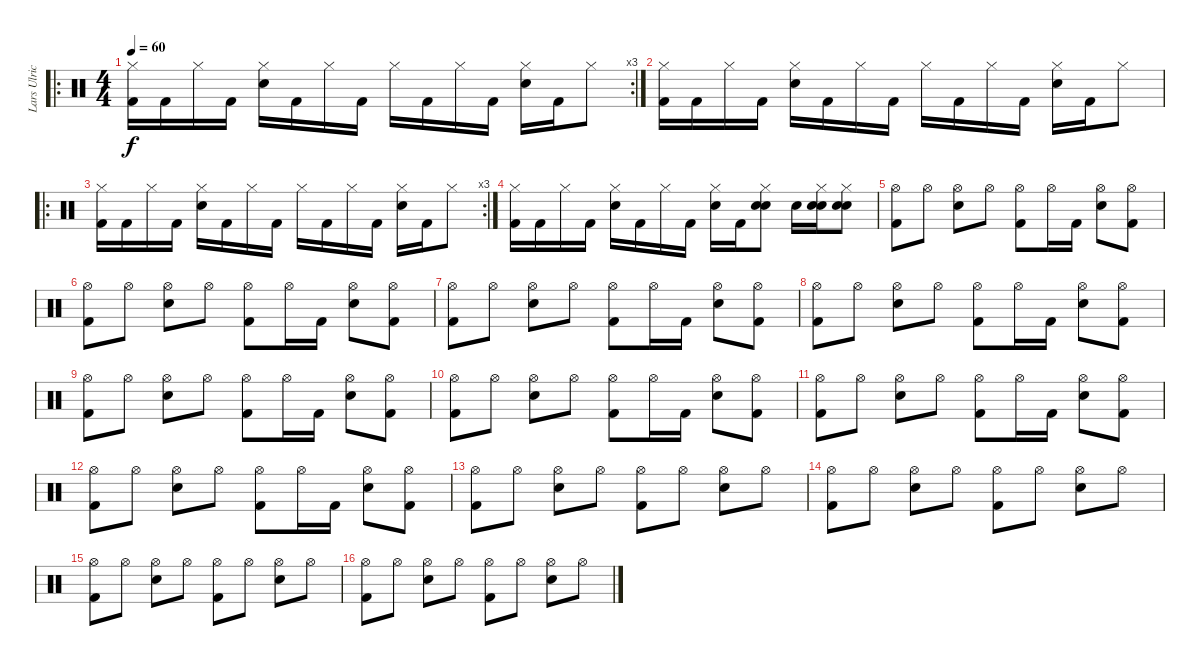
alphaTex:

\track ("Lars Ulrich" "Lars Ulric") {instrument percussion}
\staff {score}
\articulation defaults
\ro
\rc 3
\ts (4 4)
\tempo 60
\clef neutral
\ks c
("Kick (hit) 2" "Hi-Hat (closed)").16{dy f} "Kick (hit) 2".16 "Hi-Hat (closed)".16 "Kick (hit) 2".16 ("Snare (hit) 2" "Hi-Hat (closed)").16 "Kick (hit) 2".16 "Hi-Hat (closed)".16 "Kick (hit) 2".16 "Hi-Hat (closed)".16 "Kick (hit) 2".16 "Hi-Hat (closed)".16 "Kick (hit) 2".16 ("Snare (hit) 2" "Hi-Hat (closed)").16 "Kick (hit) 2".16 "Hi-Hat (closed)".8 |
("Kick (hit) 2" "Hi-Hat (closed)").16 "Kick (hit) 2".16 "Hi-Hat (closed)".16 "Kick (hit) 2".16 ("Snare (hit) 2" "Hi-Hat (closed)").16 "Kick (hit) 2".16 "Hi-Hat (closed)".16 "Kick (hit) 2".16 "Hi-Hat (closed)".16 "Kick (hit) 2".16 "Hi-Hat (closed)".16 "Kick (hit) 2".16 ("Snare (hit) 2" "Hi-Hat (closed)").16 "Kick (hit) 2".16 "Hi-Hat (closed)".8 |
\ro
\rc 3
("Kick (hit) 2" "Hi-Hat (closed)").16 "Kick (hit) 2".16 "Hi-Hat (closed)".16 "Kick (hit) 2".16 ("Snare (hit) 2" "Hi-Hat (closed)").16 "Kick (hit) 2".16 "Hi-Hat (closed)".16 "Kick (hit) 2".16 "Hi-Hat (closed)".16 "Kick (hit) 2".16 "Hi-Hat (closed)".16 "Kick (hit) 2".16 ("Snare (hit) 2" "Hi-Hat (closed)").16 "Kick (hit) 2".16 "Hi-Hat (closed)".8 |
("Kick (hit) 2" "Hi-Hat (closed)").16 "Kick (hit) 2".16 "Hi-Hat (closed)".16 "Kick (hit) 2".16 ("Snare (hit) 2" "Hi-Hat (closed)").16 "Kick (hit) 2".16 "Hi-Hat (closed)".16 "Kick (hit) 2".16 ("Snare (hit) 2" "Hi-Hat (closed)").16 "Kick (hit) 2".16 ("Snare (hit) 2" "Hi-Hat (closed)" "Electric Snare (hit)").8 "Snare (hit) 2".16 ("Snare (hit) 2" "Hi-Hat (closed)" "Electric Snare (hit)").16 ("Snare (hit) 2" "Hi-Hat (closed)" "Electric Snare (hit)").8 |
("Kick (hit) 2" "Hi-Hat (open)").8 "Hi-Hat (open)".8 ("Snare (hit) 2" "Hi-Hat (open)").8 "Hi-Hat (open)".8 ("Kick (hit) 2" "Hi-Hat (open)").8 "Hi-Hat (open)".16 "Kick (hit) 2".16 ("Snare (hit) 2" "Hi-Hat (open)").8 ("Kick (hit) 2" "Hi-Hat (open)").8 |
("Kick (hit) 2" "Hi-Hat (open)").8 "Hi-Hat (open)".8 ("Snare (hit) 2" "Hi-Hat (open)").8 "Hi-Hat (open)".8 ("Kick (hit) 2" "Hi-Hat (open)").8 "Hi-Hat (open)".16 "Kick (hit) 2".16 ("Snare (hit) 2" "Hi-Hat (open)").8 ("Kick (hit) 2" "Hi-Hat (open)").8 |
("Kick (hit) 2" "Hi-Hat (open)").8 "Hi-Hat (open)".8 ("Snare (hit) 2" "Hi-Hat (open)").8 "Hi-Hat (open)".8 ("Kick (hit) 2" "Hi-Hat (open)").8 "Hi-Hat (open)".16 "Kick (hit) 2".16 ("Snare (hit) 2" "Hi-Hat (open)").8 ("Kick (hit) 2" "Hi-Hat (open)").8 |
("Kick (hit) 2" "Hi-Hat (open)").8 "Hi-Hat (open)".8 ("Snare (hit) 2" "Hi-Hat (open)").8 "Hi-Hat (open)".8 ("Kick (hit) 2" "Hi-Hat (open)").8 "Hi-Hat (open)".16 "Kick (hit) 2".16 ("Snare (hit) 2" "Hi-Hat (open)").8 ("Kick (hit) 2" "Hi-Hat (open)").8 |
("Kick (hit) 2" "Hi-Hat (open)").8 "Hi-Hat (open)".8 ("Snare (hit) 2" "Hi-Hat (open)").8 "Hi-Hat (open)".8 ("Kick (hit) 2" "Hi-Hat (open)").8 "Hi-Hat (open)".16 "Kick (hit) 2".16 ("Snare (hit) 2" "Hi-Hat (open)").8 ("Kick (hit) 2" "Hi-Hat (open)").8 |
("Kick (hit) 2" "Hi-Hat (open)").8 "Hi-Hat (open)".8 ("Snare (hit) 2" "Hi-Hat (open)").8 "Hi-Hat (open)".8 ("Kick (hit) 2" "Hi-Hat (open)").8 "Hi-Hat (open)".16 "Kick (hit) 2".16 ("Snare (hit) 2" "Hi-Hat (open)").8 ("Kick (hit) 2" "Hi-Hat (open)").8 |
("Kick (hit) 2" "Hi-Hat (open)").8 "Hi-Hat (open)".8 ("Snare (hit) 2" "Hi-Hat (open)").8 "Hi-Hat (open)".8 ("Kick (hit) 2" "Hi-Hat (open)").8 "Hi-Hat (open)".16 "Kick (hit) 2".16 ("Snare (hit) 2" "Hi-Hat (open)").8 ("Kick (hit) 2" "Hi-Hat (open)").8 |
("Kick (hit) 2" "Hi-Hat (open)").8 "Hi-Hat (open)".8 ("Snare (hit) 2" "Hi-Hat (open)").8 "Hi-Hat (open)".8 ("Kick (hit) 2" "Hi-Hat (open)").8 "Hi-Hat (open)".16 "Kick (hit) 2".16 ("Snare (hit) 2" "Hi-Hat (open)").8 ("Kick (hit) 2" "Hi-Hat (open)").8 |
("Kick (hit) 2" "Hi-Hat (open)").8 "Hi-Hat (open)".8 ("Snare (hit) 2" "Hi-Hat (open)").8 "Hi-Hat (open)".8 ("Kick (hit) 2" "Hi-Hat (open)").8 "Hi-Hat (open)".8 ("Snare (hit) 2" "Hi-Hat (open)").8 "Hi-Hat (open)".8 |
("Kick (hit) 2" "Hi-Hat (open)").8 "Hi-Hat (open)".8 ("Snare (hit) 2" "Hi-Hat (open)").8 "Hi-Hat (open)".8 ("Kick (hit) 2" "Hi-Hat (open)").8 "Hi-Hat (open)".8 ("Snare (hit) 2" "Hi-Hat (open)").8 "Hi-Hat (open)".8 |
("Kick (hit) 2" "Hi-Hat (open)").8 "Hi-Hat (open)".8 ("Snare (hit) 2" "Hi-Hat (open)").8 "Hi-Hat (open)".8 ("Kick (hit) 2" "Hi-Hat (open)").8 "Hi-Hat (open)".8 ("Snare (hit) 2" "Hi-Hat (open)").8 "Hi-Hat (open)".8 |
("Kick (hit) 2" "Hi-Hat (open)").8 "Hi-Hat (open)".8 ("Snare (hit) 2" "Hi-Hat (open)").8 "Hi-Hat (open)".8 ("Kick (hit) 2" "Hi-Hat (open)").8 "Hi-Hat (open)".8 ("Snare (hit) 2" "Hi-Hat (open)").8 "Hi-Hat (open)".8
